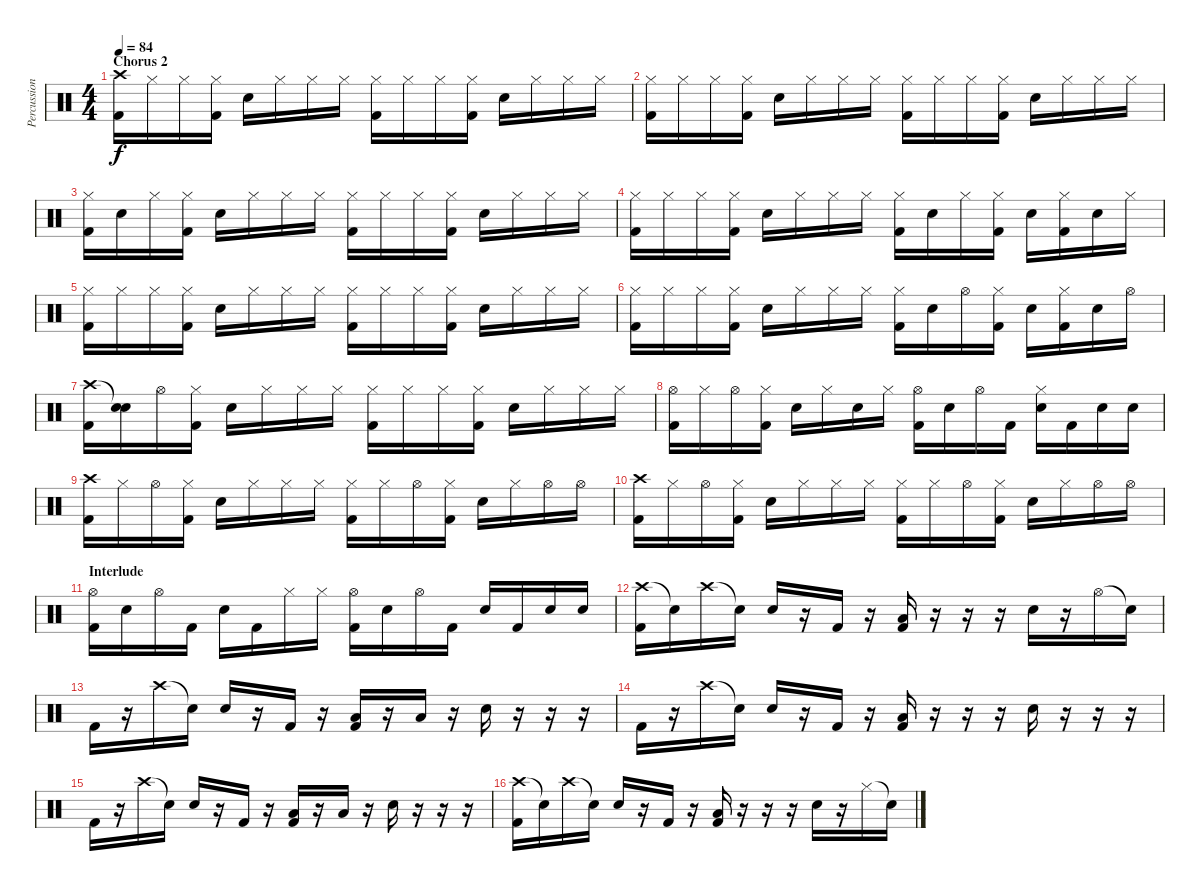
\track ("Percussion" "Percussion") {instrument percussion}
\staff {score}
\articulation defaults
\ts (4 4)
\section ("" "Chorus 2")
\tempo 84
\clef neutral
\ks c
("Crash high (hit)" "Kick (hit) 2").16{dy f} "Hi-Hat (closed)".16 "Hi-Hat (closed)".16 ("Hi-Hat (closed)" "Kick (hit) 2").16 "Snare (hit) 2".16 "Hi-Hat (closed)".16 "Hi-Hat (closed)".16 "Hi-Hat (closed)".16 ("Hi-Hat (closed)" "Kick (hit) 2").16 "Hi-Hat (closed)".16 "Hi-Hat (closed)".16 ("Hi-Hat (closed)" "Kick (hit) 2").16 "Snare (hit) 2".16 "Hi-Hat (closed)".16 "Hi-Hat (closed)".16 "Hi-Hat (closed)".16 |
("Hi-Hat (closed)" "Kick (hit) 2").16 "Hi-Hat (closed)".16 "Hi-Hat (closed)".16 ("Hi-Hat (closed)" "Kick (hit) 2").16 "Snare (hit) 2".16 "Hi-Hat (closed)".16 "Hi-Hat (closed)".16 "Hi-Hat (closed)".16 ("Hi-Hat (closed)" "Kick (hit) 2").16 "Hi-Hat (closed)".16 "Hi-Hat (closed)".16 ("Hi-Hat (closed)" "Kick (hit) 2").16 "Snare (hit) 2".16 "Hi-Hat (closed)".16 "Hi-Hat (closed)".16 "Hi-Hat (closed)".16 |
("Hi-Hat (closed)" "Kick (hit) 2").16 "Snare (hit) 2".16 "Hi-Hat (closed)".16 ("Hi-Hat (closed)" "Kick (hit) 2").16 "Snare (hit) 2".16 "Hi-Hat (closed)".16 "Hi-Hat (closed)".16 "Hi-Hat (closed)".16 ("Hi-Hat (closed)" "Kick (hit) 2").16 "Hi-Hat (closed)".16 "Hi-Hat (closed)".16 ("Hi-Hat (closed)" "Kick (hit) 2").16 "Snare (hit) 2".16 "Hi-Hat (closed)".16 "Hi-Hat (closed)".16 "Hi-Hat (closed)".16 |
("Hi-Hat (closed)" "Kick (hit) 2").16 "Hi-Hat (closed)".16 "Hi-Hat (closed)".16 ("Hi-Hat (closed)" "Kick (hit) 2").16 "Snare (hit) 2".16 "Hi-Hat (closed)".16 "Hi-Hat (closed)".16 "Hi-Hat (closed)".16 ("Hi-Hat (closed)" "Kick (hit) 2").16 "Snare (hit) 2".16 "Hi-Hat (closed)".16 ("Hi-Hat (closed)" "Kick (hit) 2").16 "Snare (hit) 2".16 ("Hi-Hat (closed)" "Kick (hit) 2").16 "Snare (hit) 2".16 "Hi-Hat (closed)".16 |
("Hi-Hat (closed)" "Kick (hit) 2").16 "Hi-Hat (closed)".16 "Hi-Hat (closed)".16 ("Hi-Hat (closed)" "Kick (hit) 2").16 "Snare (hit) 2".16 "Hi-Hat (closed)".16 "Hi-Hat (closed)".16 "Hi-Hat (closed)".16 ("Hi-Hat (closed)" "Kick (hit) 2").16 "Hi-Hat (closed)".16 "Hi-Hat (closed)".16 ("Hi-Hat (closed)" "Kick (hit) 2").16 "Snare (hit) 2".16 "Hi-Hat (closed)".16 "Hi-Hat (closed)".16 "Hi-Hat (closed)".16 |
("Hi-Hat (closed)" "Kick (hit) 2").16 "Hi-Hat (closed)".16 "Hi-Hat (closed)".16 ("Hi-Hat (closed)" "Kick (hit) 2").16 "Snare (hit) 2".16 "Hi-Hat (closed)".16 "Hi-Hat (closed)".16 "Hi-Hat (closed)".16 ("Hi-Hat (closed)" "Kick (hit) 2").16 "Snare (hit) 2".16 "Hi-Hat (open)".16 ("Hi-Hat (closed)" "Kick (hit) 2").16 "Snare (hit) 2".16 ("Hi-Hat (closed)" "Kick (hit) 2").16 "Snare (hit) 2".16 "Hi-Hat (open)".16 |
("Crash high (hit)" "Kick (hit) 2").16 ("Snare (hit)"{t} "Snare (hit) 2").16 "Hi-Hat (open)".16 ("Hi-Hat (closed)" "Kick (hit) 2").16 "Snare (hit) 2".16 "Hi-Hat (closed)".16 "Hi-Hat (closed)".16 "Hi-Hat (closed)".16 ("Hi-Hat (closed)" "Kick (hit) 2").16 "Hi-Hat (closed)".16 "Hi-Hat (closed)".16 ("Hi-Hat (closed)" "Kick (hit) 2").16 "Snare (hit) 2".16 "Hi-Hat (closed)".16 "Hi-Hat (closed)".16 "Hi-Hat (closed)".16 |
("Hi-Hat (open)" "Kick (hit) 2").16 "Hi-Hat (closed)".16 "Hi-Hat (open)".16 ("Hi-Hat (closed)" "Kick (hit) 2").16 "Snare (hit) 2".16 "Hi-Hat (closed)".16 "Snare (hit) 2".16 "Hi-Hat (closed)".16 ("Hi-Hat (open)" "Kick (hit) 2").16 "Snare (hit) 2".16 "Hi-Hat (open)".16 "Kick (hit) 2".16 ("Hi-Hat (closed)" "Snare (hit) 2").16 "Kick (hit) 2".16 "Snare (hit) 2".16 "Snare (hit) 2".16 |
("Crash high (hit)" "Kick (hit) 2").16 "Hi-Hat (closed)".16 "Hi-Hat (open)".16 ("Hi-Hat (closed)" "Kick (hit) 2").16 "Snare (hit) 2".16 "Hi-Hat (closed)".16 "Hi-Hat (closed)".16 "Hi-Hat (closed)".16 ("Hi-Hat (closed)" "Kick (hit) 2").16 "Hi-Hat (closed)".16 "Hi-Hat (open)".16 ("Hi-Hat (closed)" "Kick (hit) 2").16 "Snare (hit) 2".16 "Hi-Hat (closed)".16 "Hi-Hat (open)".16 "Hi-Hat (open)".16 |
("Crash high (hit)" "Kick (hit) 2").16 "Hi-Hat (closed)".16 "Hi-Hat (open)".16 ("Hi-Hat (closed)" "Kick (hit) 2").16 "Snare (hit) 2".16 "Hi-Hat (closed)".16 "Hi-Hat (closed)".16 "Hi-Hat (closed)".16 ("Hi-Hat (closed)" "Kick (hit) 2").16 "Hi-Hat (closed)".16 "Hi-Hat (open)".16 ("Hi-Hat (closed)" "Kick (hit) 2").16 "Snare (hit) 2".16 "Hi-Hat (closed)".16 "Hi-Hat (open)".16 "Hi-Hat (open)".16 |
\section ("" "Interlude")
("Hi-Hat (open)" "Kick (hit) 2").16 "Snare (hit) 2".16 "Hi-Hat (open)".16 "Kick (hit) 2".16 "Snare (hit) 2".16 "Kick (hit) 2".16 "Hi-Hat (closed)".16 "Hi-Hat (closed)".16 ("Hi-Hat (open)" "Kick (hit) 2").16 "Snare (hit) 2".16 "Hi-Hat (open)".16 "Kick (hit) 2".16 "Snare (hit) 2".16 "Kick (hit) 2".16 "Snare (hit) 2".16 "Snare (hit) 2".16 |
("Crash high (hit)" "Kick (hit) 2").16 "Snare (hit)"{t}.16 "Crash high (hit)".16 "Snare (hit)"{t}.16 "Snare (hit) 2".16 r.16 "Kick (hit) 2".16 r.16 ("Low Floor Tom (hit)" "Kick (hit) 2").16 r.16 r.16 r.16 "Snare (hit) 2".16 r.16 "Hi-Hat (open)".16 "Snare (hit)"{t}.16 |
"Kick (hit) 2".16 r.16 "Crash high (hit)".16 "Snare (hit)"{t}.16 "Snare (hit) 2".16 r.16 "Kick (hit) 2".16 r.16 ("Low Tom (hit)" "Kick (hit) 2").16 r.16 "Low Floor Tom (hit)".16 r.16 "Snare (hit) 2".16 r.16 r.16 r.16 |
"Kick (hit) 2".16 r.16 "Crash high (hit)".16 "Snare (hit)"{t}.16 "Snare (hit) 2".16 r.16 "Kick (hit) 2".16 r.16 ("Low Floor Tom (hit)" "Kick (hit) 2").16 r.16 r.16 r.16 "Snare (hit) 2".16 r.16 r.16 r.16 |
"Kick (hit) 2".16 r.16 "Crash high (hit)".16 "Snare (hit)"{t}.16 "Snare (hit) 2".16 r.16 "Kick (hit) 2".16 r.16 ("Low Tom (hit)" "Kick (hit) 2").16 r.16 "Low Floor Tom (hit)".16 r.16 "Snare (hit) 2".16 r.16 r.16 r.16 |
("Crash high (hit)" "Kick (hit) 2").16 "Snare (hit)"{t}.16 "Crash high (hit)".16 "Snare (hit)"{t}.16 "Snare (hit) 2".16 r.16 "Kick (hit) 2".16 r.16 ("Low Floor Tom (hit)" "Kick (hit) 2").16 r.16 r.16 r.16 "Snare (hit) 2".16 r.16 "Hi-Hat (closed)".16 "Snare (hit)"{t}.16
